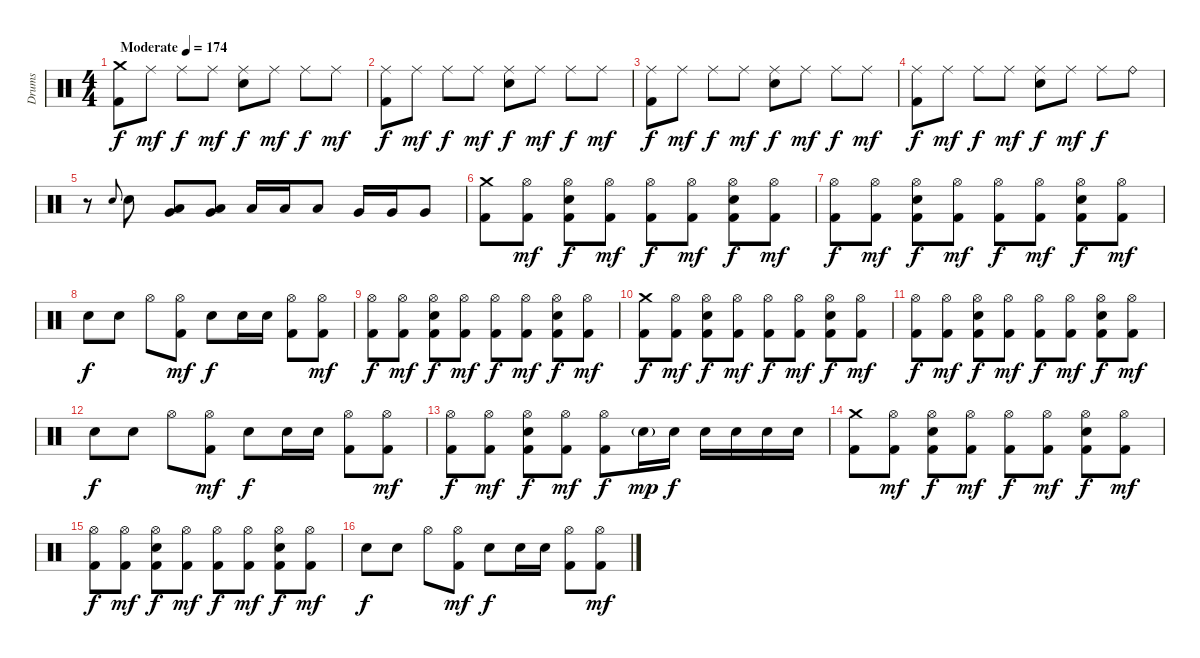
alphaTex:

\track ("Drums" "Drums") {instrument percussion}
\staff {score}
\articulation defaults
\ts (4 4)
\tempo (174 "Moderate")
\clef neutral
\ks c
("Crash medium (hit)" "Kick (hit) 2").8{dy f} "Ride (middle)".8{dy mf} "Ride (middle)".8{dy f} "Ride (middle)".8{dy mf} ("Ride (middle)" "Electric Snare (hit)").8{dy f} "Ride (middle)".8{dy mf} "Ride (middle)".8{dy f} "Ride (middle)".8{dy mf} |
("Ride (middle)" "Kick (hit) 2").8{dy f} "Ride (middle)".8{dy mf} "Ride (middle)".8{dy f} "Ride (middle)".8{dy mf} ("Ride (middle)" "Electric Snare (hit)").8{dy f} "Ride (middle)".8{dy mf} "Ride (middle)".8{dy f} "Ride (middle)".8{dy mf} |
("Ride (middle)" "Kick (hit) 2").8{dy f} "Ride (middle)".8{dy mf} "Ride (middle)".8{dy f} "Ride (middle)".8{dy mf} ("Ride (middle)" "Electric Snare (hit)").8{dy f} "Ride (middle)".8{dy mf} "Ride (middle)".8{dy f} "Ride (middle)".8{dy mf} |
("Ride (middle)" "Kick (hit) 2").8{dy f} "Ride (middle)".8{dy mf} "Ride (middle)".8{dy f} "Ride (middle)".8{dy mf} ("Ride (middle)" "Electric Snare (hit)").8{dy f} "Ride (middle)".8{dy mf} "Ride (middle)".8{dy f} "Ride (bell)".8 |
r.8 "Electric Snare (hit)".8{gr onbeat} "Electric Snare (hit)".8 ("Low Tom (hit)" "Very Low Tom (hit)").8 ("Low Tom (hit)" "Very Low Tom (hit)").8 "Low Tom (hit)".16 "Low Tom (hit)".16 "Low Tom (hit)".8 "Very Low Tom (hit)".16 "Very Low Tom (hit)".16 "Very Low Tom (hit)".8 |
("Crash medium (hit)" "Kick (hit) 2").8 ("Hi-Hat (open)" "Kick (hit) 2").8{dy mf} ("Hi-Hat (open)" "Electric Snare (hit)" "Kick (hit) 2").8{dy f} ("Hi-Hat (open)" "Kick (hit) 2").8{dy mf} ("Hi-Hat (open)" "Kick (hit) 2").8{dy f} ("Hi-Hat (open)" "Kick (hit) 2").8{dy mf} ("Hi-Hat (open)" "Electric Snare (hit)" "Kick (hit) 2").8{dy f} ("Hi-Hat (open)" "Kick (hit) 2").8{dy mf} |
("Hi-Hat (open)" "Kick (hit) 2").8{dy f} ("Hi-Hat (open)" "Kick (hit) 2").8{dy mf} ("Hi-Hat (open)" "Electric Snare (hit)" "Kick (hit) 2").8{dy f} ("Hi-Hat (open)" "Kick (hit) 2").8{dy mf} ("Hi-Hat (open)" "Kick (hit) 2").8{dy f} ("Hi-Hat (open)" "Kick (hit) 2").8{dy mf} ("Hi-Hat (open)" "Electric Snare (hit)" "Kick (hit) 2").8{dy f} ("Hi-Hat (open)" "Kick (hit) 2").8{dy mf} |
"Electric Snare (hit)".8{dy f} "Electric Snare (hit)".8 "Hi-Hat (open)".8 ("Hi-Hat (open)" "Kick (hit) 2").8{dy mf} "Electric Snare (hit)".8{dy f} "Electric Snare (hit)".16 "Electric Snare (hit)".16 ("Hi-Hat (open)" "Kick (hit) 2").8 ("Hi-Hat (open)" "Kick (hit) 2").8{dy mf} |
("Hi-Hat (open)" "Kick (hit) 2").8{dy f} ("Hi-Hat (open)" "Kick (hit) 2").8{dy mf} ("Hi-Hat (open)" "Electric Snare (hit)" "Kick (hit) 2").8{dy f} ("Hi-Hat (open)" "Kick (hit) 2").8{dy mf} ("Hi-Hat (open)" "Kick (hit) 2").8{dy f} ("Hi-Hat (open)" "Kick (hit) 2").8{dy mf} ("Hi-Hat (open)" "Electric Snare (hit)" "Kick (hit) 2").8{dy f} ("Hi-Hat (open)" "Kick (hit) 2").8{dy mf} |
("Crash medium (hit)" "Kick (hit) 2").8{dy f} ("Hi-Hat (open)" "Kick (hit) 2").8{dy mf} ("Hi-Hat (open)" "Electric Snare (hit)" "Kick (hit) 2").8{dy f} ("Hi-Hat (open)" "Kick (hit) 2").8{dy mf} ("Hi-Hat (open)" "Kick (hit) 2").8{dy f} ("Hi-Hat (open)" "Kick (hit) 2").8{dy mf} ("Hi-Hat (open)" "Electric Snare (hit)" "Kick (hit) 2").8{dy f} ("Hi-Hat (open)" "Kick (hit) 2").8{dy mf} |
("Hi-Hat (open)" "Kick (hit) 2").8{dy f} ("Hi-Hat (open)" "Kick (hit) 2").8{dy mf} ("Hi-Hat (open)" "Electric Snare (hit)" "Kick (hit) 2").8{dy f} ("Hi-Hat (open)" "Kick (hit) 2").8{dy mf} ("Hi-Hat (open)" "Kick (hit) 2").8{dy f} ("Hi-Hat (open)" "Kick (hit) 2").8{dy mf} ("Hi-Hat (open)" "Electric Snare (hit)" "Kick (hit) 2").8{dy f} ("Hi-Hat (open)" "Kick (hit) 2").8{dy mf} |
"Electric Snare (hit)".8{dy f} "Electric Snare (hit)".8 "Hi-Hat (open)".8 ("Hi-Hat (open)" "Kick (hit) 2").8{dy mf} "Electric Snare (hit)".8{dy f} "Electric Snare (hit)".16 "Electric Snare (hit)".16 ("Hi-Hat (open)" "Kick (hit) 2").8 ("Hi-Hat (open)" "Kick (hit) 2").8{dy mf} |
("Hi-Hat (open)" "Kick (hit) 2").8{dy f} ("Hi-Hat (open)" "Kick (hit) 2").8{dy mf} ("Hi-Hat (open)" "Electric Snare (hit)" "Kick (hit) 2").8{dy f} ("Hi-Hat (open)" "Kick (hit) 2").8{dy mf} ("Hi-Hat (open)" "Kick (hit) 2").8{dy f} "Electric Snare (hit)"{g}.16{dy mp} "Electric Snare (hit)".16{dy f} "Electric Snare (hit)".16 "Electric Snare (hit)".16 "Electric Snare (hit)".16 "Electric Snare (hit)".16 |
("Crash medium (hit)" "Kick (hit) 2").8 ("Hi-Hat (open)" "Kick (hit) 2").8{dy mf} ("Hi-Hat (open)" "Electric Snare (hit)" "Kick (hit) 2").8{dy f} ("Hi-Hat (open)" "Kick (hit) 2").8{dy mf} ("Hi-Hat (open)" "Kick (hit) 2").8{dy f} ("Hi-Hat (open)" "Kick (hit) 2").8{dy mf} ("Hi-Hat (open)" "Electric Snare (hit)" "Kick (hit) 2").8{dy f} ("Hi-Hat (open)" "Kick (hit) 2").8{dy mf} |
("Hi-Hat (open)" "Kick (hit) 2").8{dy f} ("Hi-Hat (open)" "Kick (hit) 2").8{dy mf} ("Hi-Hat (open)" "Electric Snare (hit)" "Kick (hit) 2").8{dy f} ("Hi-Hat (open)" "Kick (hit) 2").8{dy mf} ("Hi-Hat (open)" "Kick (hit) 2").8{dy f} ("Hi-Hat (open)" "Kick (hit) 2").8{dy mf} ("Hi-Hat (open)" "Electric Snare (hit)" "Kick (hit) 2").8{dy f} ("Hi-Hat (open)" "Kick (hit) 2").8{dy mf} |
"Electric Snare (hit)".8{dy f} "Electric Snare (hit)".8 "Hi-Hat (open)".8 ("Hi-Hat (open)" "Kick (hit) 2").8{dy mf} "Electric Snare (hit)".8{dy f} "Electric Snare (hit)".16 "Electric Snare (hit)".16 ("Hi-Hat (open)" "Kick (hit) 2").8 ("Hi-Hat (open)" "Kick (hit) 2").8{dy mf}
